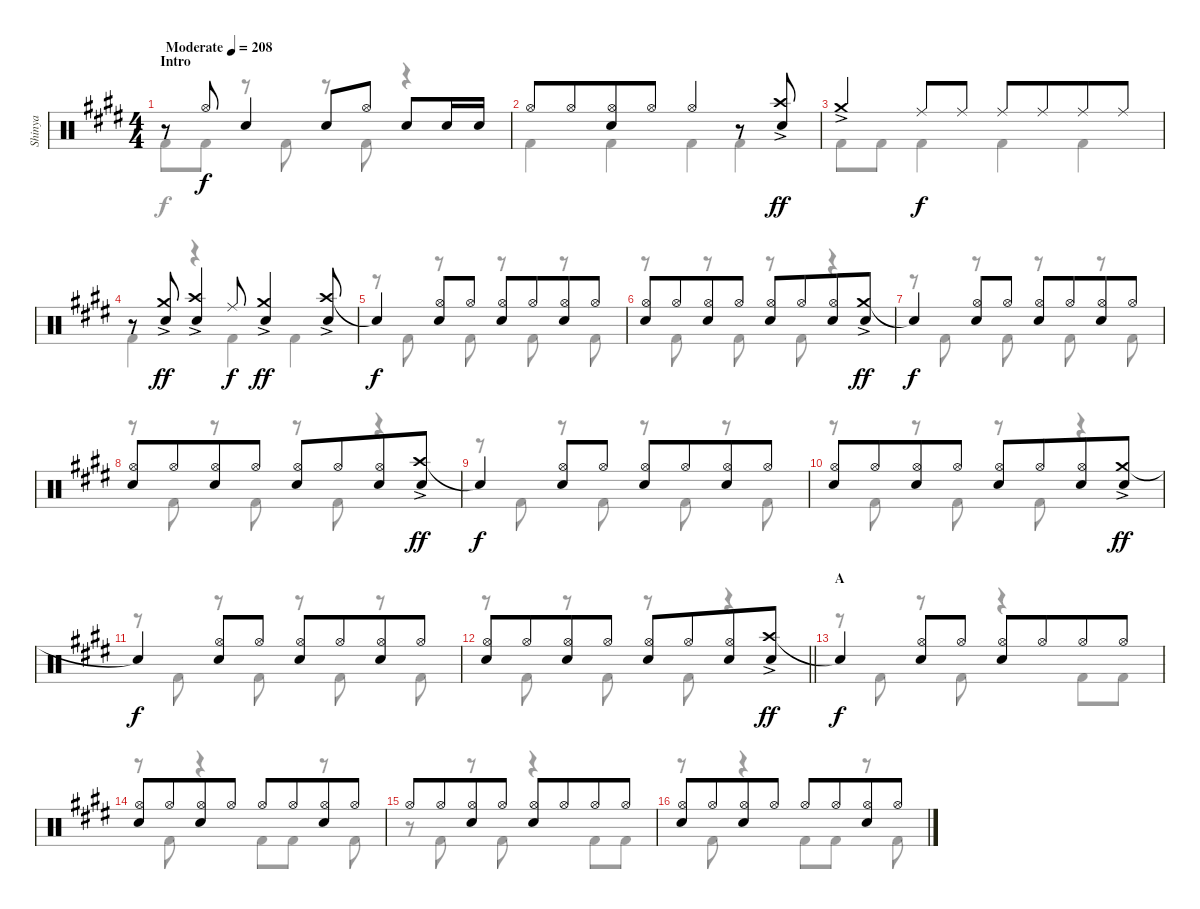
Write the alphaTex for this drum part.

\track ("Shinya" "Shinya") {instrument percussion}
\staff {score}
\articulation defaults
\voice
\ts (4 4)
\section ("" "Intro")
\tempo (208 "Moderate")
\clef neutral
\ks c#minor
r.8{dy f} "Hi-Hat (open)".8 "Snare (hit) 2".4 "Snare (hit) 2".8 "Hi-Hat (open)".8 "Snare (hit) 2".8 "Snare (hit) 2".16 "Snare (hit) 2".16 |
"Hi-Hat (open)".8 "Hi-Hat (open)".8{beam merge} ("Hi-Hat (open)" "Snare (hit) 2").8 "Hi-Hat (open)".8 "Hi-Hat (open)".4 r.8 ("Crash high (hit)"{ac} "Snare (hit) 2").8{dy ff} |
"Crash medium (hit)"{ac}.4 "Ride (middle)".8{dy f} "Ride (middle)".8 "Ride (middle)".8 "Ride (middle)".8{beam merge} "Ride (middle)".8 "Ride (middle)".8 |
r.8 ("Crash medium (hit)"{ac} "Snare (hit) 2").8{dy ff} ("Crash high (hit)"{ac} "Snare (hit) 2").4 "Ride (middle)".8{dy f} ("Crash medium (hit)"{ac} "Snare (hit) 2").4{dy ff} ("Crash high (hit)"{ac} "Snare (hit) 2").8 |
"Snare (hit)"{t}.4{dy f} ("Hi-Hat (open)" "Snare (hit) 2").8 "Hi-Hat (open)".8 ("Hi-Hat (open)" "Snare (hit) 2").8 "Hi-Hat (open)".8{beam merge} ("Hi-Hat (open)" "Snare (hit) 2").8 "Hi-Hat (open)".8 |
("Hi-Hat (open)" "Snare (hit) 2").8 "Hi-Hat (open)".8{beam merge} ("Hi-Hat (open)" "Snare (hit) 2").8 "Hi-Hat (open)".8 ("Hi-Hat (open)" "Snare (hit) 2").8 "Hi-Hat (open)".8{beam merge} ("Hi-Hat (open)" "Snare (hit) 2").8 ("Crash medium (hit)"{ac} "Snare (hit) 2").8{dy ff} |
"Snare (hit)"{t}.4{dy f} ("Hi-Hat (open)" "Snare (hit) 2").8 "Hi-Hat (open)".8 ("Hi-Hat (open)" "Snare (hit) 2").8 "Hi-Hat (open)".8{beam merge} ("Hi-Hat (open)" "Snare (hit) 2").8 "Hi-Hat (open)".8 |
("Hi-Hat (open)" "Snare (hit) 2").8 "Hi-Hat (open)".8{beam merge} ("Hi-Hat (open)" "Snare (hit) 2").8 "Hi-Hat (open)".8 ("Hi-Hat (open)" "Snare (hit) 2").8 "Hi-Hat (open)".8{beam merge} ("Hi-Hat (open)" "Snare (hit) 2").8 ("Crash high (hit)"{ac} "Snare (hit) 2").8{dy ff} |
"Snare (hit)"{t}.4{dy f} ("Hi-Hat (open)" "Snare (hit) 2").8 "Hi-Hat (open)".8 ("Hi-Hat (open)" "Snare (hit) 2").8 "Hi-Hat (open)".8{beam merge} ("Hi-Hat (open)" "Snare (hit) 2").8 "Hi-Hat (open)".8 |
("Hi-Hat (open)" "Snare (hit) 2").8 "Hi-Hat (open)".8{beam merge} ("Hi-Hat (open)" "Snare (hit) 2").8 "Hi-Hat (open)".8 ("Hi-Hat (open)" "Snare (hit) 2").8 "Hi-Hat (open)".8{beam merge} ("Hi-Hat (open)" "Snare (hit) 2").8 ("Crash medium (hit)"{ac} "Snare (hit) 2").8{dy ff} |
"Snare (hit)"{t}.4{dy f} ("Hi-Hat (open)" "Snare (hit) 2").8 "Hi-Hat (open)".8 ("Hi-Hat (open)" "Snare (hit) 2").8 "Hi-Hat (open)".8{beam merge} ("Hi-Hat (open)" "Snare (hit) 2").8 "Hi-Hat (open)".8 |
\barLineRight lightlight
("Hi-Hat (open)" "Snare (hit) 2").8 "Hi-Hat (open)".8{beam merge} ("Hi-Hat (open)" "Snare (hit) 2").8 "Hi-Hat (open)".8 ("Hi-Hat (open)" "Snare (hit) 2").8 "Hi-Hat (open)".8{beam merge} ("Hi-Hat (open)" "Snare (hit) 2").8 ("Crash high (hit)"{ac} "Snare (hit) 2").8{dy ff} |
\section ("" "A")
"Snare (hit)"{t}.4{dy f} ("Hi-Hat (open)" "Snare (hit) 2").8 "Hi-Hat (open)".8 ("Hi-Hat (open)" "Snare (hit) 2").8 "Hi-Hat (open)".8{beam merge} "Hi-Hat (open)".8 "Hi-Hat (open)".8 |
("Hi-Hat (open)" "Snare (hit) 2").8 "Hi-Hat (open)".8{beam merge} ("Hi-Hat (open)" "Snare (hit) 2").8 "Hi-Hat (open)".8 "Hi-Hat (open)".8 "Hi-Hat (open)".8{beam merge} ("Hi-Hat (open)" "Snare (hit) 2").8 "Hi-Hat (open)".8 |
"Hi-Hat (open)".8 "Hi-Hat (open)".8{beam merge} ("Hi-Hat (open)" "Snare (hit) 2").8 "Hi-Hat (open)".8 ("Hi-Hat (open)" "Snare (hit) 2").8 "Hi-Hat (open)".8{beam merge} "Hi-Hat (open)".8 "Hi-Hat (open)".8 |
("Hi-Hat (open)" "Snare (hit) 2").8 "Hi-Hat (open)".8{beam merge} ("Hi-Hat (open)" "Snare (hit) 2").8 "Hi-Hat (open)".8 "Hi-Hat (open)".8 "Hi-Hat (open)".8{beam merge} ("Hi-Hat (open)" "Snare (hit) 2").8 "Hi-Hat (open)".8
\voice
\clef neutral
\ottava regular
\simile none
\ks c#minor "Kick (hit) 2".8{dy f} "Kick (hit) 2".8
r.8 "Kick (hit) 2".8 r.8 "Kick (hit) 2".8 r.4 |
"Kick (hit) 2".4 "Kick (hit) 2".4 "Kick (hit) 2".4 "Kick (hit) 2".4 |
"Kick (hit) 2".8 "Kick (hit) 2".8 "Kick (hit) 2".4 "Kick (hit) 2".4 "Kick (hit) 2".4 |
"Kick (hit) 2".4 r.4 "Kick (hit) 2".4 "Kick (hit) 2".4 |
r.8 "Kick (hit) 2".8 r.8 "Kick (hit) 2".8 r.8 "Kick (hit) 2".8 r.8 "Kick (hit) 2".8 |
r.8 "Kick (hit) 2".8 r.8 "Kick (hit) 2".8 r.8 "Kick (hit) 2".8 r.4 |
r.8 "Kick (hit) 2".8 r.8 "Kick (hit) 2".8 r.8 "Kick (hit) 2".8 r.8 "Kick (hit) 2".8 |
r.8 "Kick (hit) 2".8 r.8 "Kick (hit) 2".8 r.8 "Kick (hit) 2".8 r.4 |
r.8 "Kick (hit) 2".8 r.8 "Kick (hit) 2".8 r.8 "Kick (hit) 2".8 r.8 "Kick (hit) 2".8 |
r.8 "Kick (hit) 2".8 r.8 "Kick (hit) 2".8 r.8 "Kick (hit) 2".8 r.4 |
r.8 "Kick (hit) 2".8 r.8 "Kick (hit) 2".8 r.8 "Kick (hit) 2".8 r.8 "Kick (hit) 2".8 |
\barLineRight lightlight
r.8 "Kick (hit) 2".8 r.8 "Kick (hit) 2".8 r.8 "Kick (hit) 2".8 r.4 |
r.8 "Kick (hit) 2".8 r.8 "Kick (hit) 2".8 r.4 "Kick (hit) 2".8 "Kick (hit) 2".8 |
r.8 "Kick (hit) 2".8 r.4 "Kick (hit) 2".8 "Kick (hit) 2".8 r.8 "Kick (hit) 2".8 |
r.8 "Kick (hit) 2".8 r.8 "Kick (hit) 2".8 r.4 "Kick (hit) 2".8 "Kick (hit) 2".8 |
r.8 "Kick (hit) 2".8 r.4 "Kick (hit) 2".8 "Kick (hit) 2".8 r.8 "Kick (hit) 2".8
